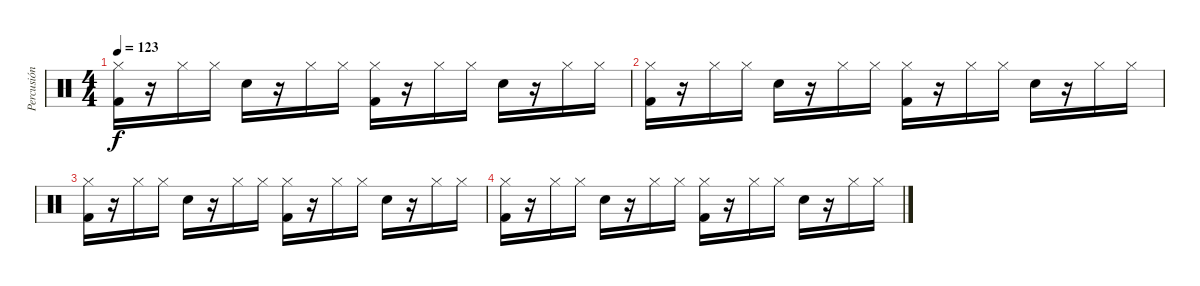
\track ("Percusión" "Percusión") {instrument percussion}
\staff {score}
\articulation defaults
\ts (4 4)
\tempo 123
\clef neutral
\ks c
("Hi-Hat (closed)" "Kick (hit) 2").16{dy f} r.16 "Hi-Hat (closed)".16 "Hi-Hat (closed)".16 "Snare (hit) 2".16 r.16 "Hi-Hat (closed)".16 "Hi-Hat (closed)".16 ("Hi-Hat (closed)" "Kick (hit) 2").16 r.16 "Hi-Hat (closed)".16 "Hi-Hat (closed)".16 "Snare (hit) 2".16 r.16 "Hi-Hat (closed)".16 "Hi-Hat (closed)".16 |
("Hi-Hat (closed)" "Kick (hit) 2").16 r.16 "Hi-Hat (closed)".16 "Hi-Hat (closed)".16 "Snare (hit) 2".16 r.16 "Hi-Hat (closed)".16 "Hi-Hat (closed)".16 ("Hi-Hat (closed)" "Kick (hit) 2").16 r.16 "Hi-Hat (closed)".16 "Hi-Hat (closed)".16 "Snare (hit) 2".16 r.16 "Hi-Hat (closed)".16 "Hi-Hat (closed)".16 |
("Hi-Hat (closed)" "Kick (hit) 2").16 r.16 "Hi-Hat (closed)".16 "Hi-Hat (closed)".16 "Snare (hit) 2".16 r.16 "Hi-Hat (closed)".16 "Hi-Hat (closed)".16 ("Hi-Hat (closed)" "Kick (hit) 2").16 r.16 "Hi-Hat (closed)".16 "Hi-Hat (closed)".16 "Snare (hit) 2".16 r.16 "Hi-Hat (closed)".16 "Hi-Hat (closed)".16 |
("Hi-Hat (closed)" "Kick (hit) 2").16 r.16 "Hi-Hat (closed)".16 "Hi-Hat (closed)".16 "Snare (hit) 2".16 r.16 "Hi-Hat (closed)".16 "Hi-Hat (closed)".16 ("Hi-Hat (closed)" "Kick (hit) 2").16 r.16 "Hi-Hat (closed)".16 "Hi-Hat (closed)".16 "Snare (hit) 2".16 r.16 "Hi-Hat (closed)".16 "Hi-Hat (closed)".16
